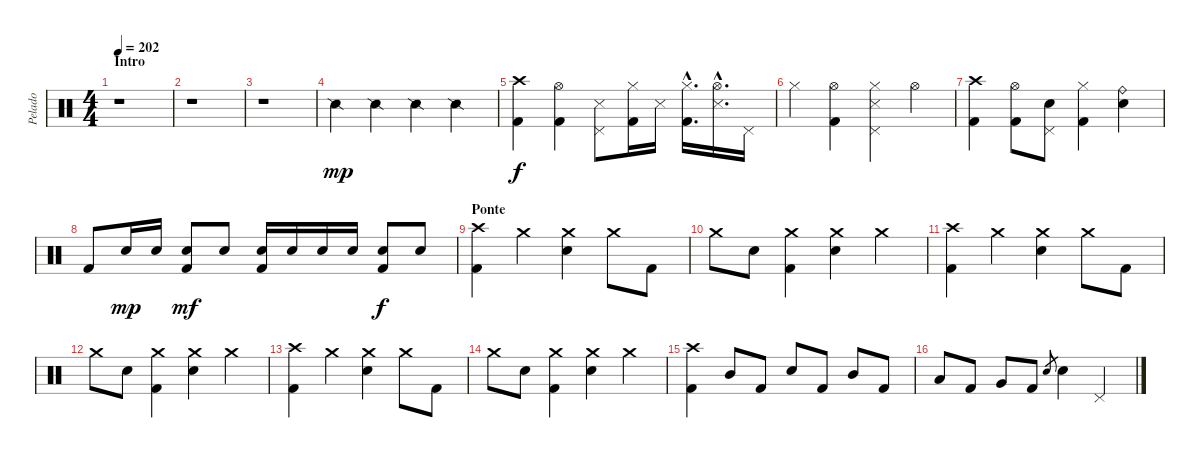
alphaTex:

\track ("Pelado" "Pelado") {instrument percussion}
\staff {score}
\articulation defaults
\ts (4 4)
\section ("" "Intro")
\tempo 202
\clef neutral
\ks c
r.1{dy mp} |
r.1 |
r.1 |
"Snare (side stick) 2".4 "Snare (side stick) 2".4 "Snare (side stick) 2".4 "Snare (side stick) 2".4 |
("Crash high (hit)" "Kick (hit) 2").4{dy f} ("Hi-Hat (open)" "Kick (hit) 2").4 ("Pedal Hi-Hat (hit)" "Snare (side stick) 3").8 ("Hi-Hat (closed)" "Kick (hit) 2").16 "Snare (side stick) 3".16 ("Hi-Hat (closed)"{hac} "Kick (hit) 2"{hac}).16{d} ("Hi-Hat (open)"{hac} "Snare (side stick) 3"{hac}).16{d} "Pedal Hi-Hat (hit)".16 |
"Hi-Hat (closed)".4 ("Hi-Hat (open)" "Kick (hit) 2").4 ("Hi-Hat (closed)" "Pedal Hi-Hat (hit)" "Snare (side stick) 3").4 "Hi-Hat (open)".4 |
("Crash high (hit)" "Kick (hit) 2").4 ("Hi-Hat (open)" "Kick (hit) 2").8 ("Pedal Hi-Hat (hit)" "Electric Snare (hit)").8 ("Hi-Hat (closed)" "Kick (hit) 2").4 ("Ride (bell)" "Electric Snare (hit)").4 |
"Kick (hit) 2".8 "Electric Snare (hit)".16{dy mp} "Electric Snare (hit)".16 ("Electric Snare (hit)" "Kick (hit) 2").8{dy mf} "Electric Snare (hit)".8 ("Electric Snare (hit)" "Kick (hit) 2").16 "Electric Snare (hit)".16 "Electric Snare (hit)".16 "Electric Snare (hit)".16 ("Electric Snare (hit)" "Kick (hit) 2").8{dy f} "Electric Snare (hit)".8 |
\section ("" "Ponte")
("Crash high (hit)" "Kick (hit) 2").4 "Crash medium (hit)".4 ("Crash medium (hit)" "Electric Snare (hit)").4 "Crash medium (hit)".8 "Kick (hit) 2".8 |
"Crash medium (hit)".8 "Electric Snare (hit)".8 ("Crash medium (hit)" "Kick (hit) 2").4 ("Crash medium (hit)" "Electric Snare (hit)").4 "Crash medium (hit)".4 |
("Crash high (hit)" "Kick (hit) 2").4 "Crash medium (hit)".4 ("Crash medium (hit)" "Electric Snare (hit)").4 "Crash medium (hit)".8 "Kick (hit) 2".8 |
"Crash medium (hit)".8 "Electric Snare (hit)".8 ("Crash medium (hit)" "Kick (hit) 2").4 ("Crash medium (hit)" "Electric Snare (hit)").4 "Crash medium (hit)".4 |
("Crash high (hit)" "Kick (hit) 2").4 "Crash medium (hit)".4 ("Crash medium (hit)" "Electric Snare (hit)").4 "Crash medium (hit)".8 "Kick (hit) 2".8 |
"Crash medium (hit)".8 "Electric Snare (hit)".8 ("Crash medium (hit)" "Kick (hit) 2").4 ("Crash medium (hit)" "Electric Snare (hit)").4 "Crash medium (hit)".4 |
("Crash high (hit)" "Kick (hit) 2").4 "Mid Tom (hit)".8 "Kick (hit) 2".8 "Electric Snare (hit)".8 "Kick (hit) 2".8 "Mid Tom (hit)".8 "Kick (hit) 2".8 |
"Low Tom (hit)".8 "Kick (hit) 2".8 "Very Low Tom (hit)".8 "Kick (hit) 2".8 "Electric Snare (hit)".8{gr} "Electric Snare (hit)".4 "Pedal Hi-Hat (hit)".4
